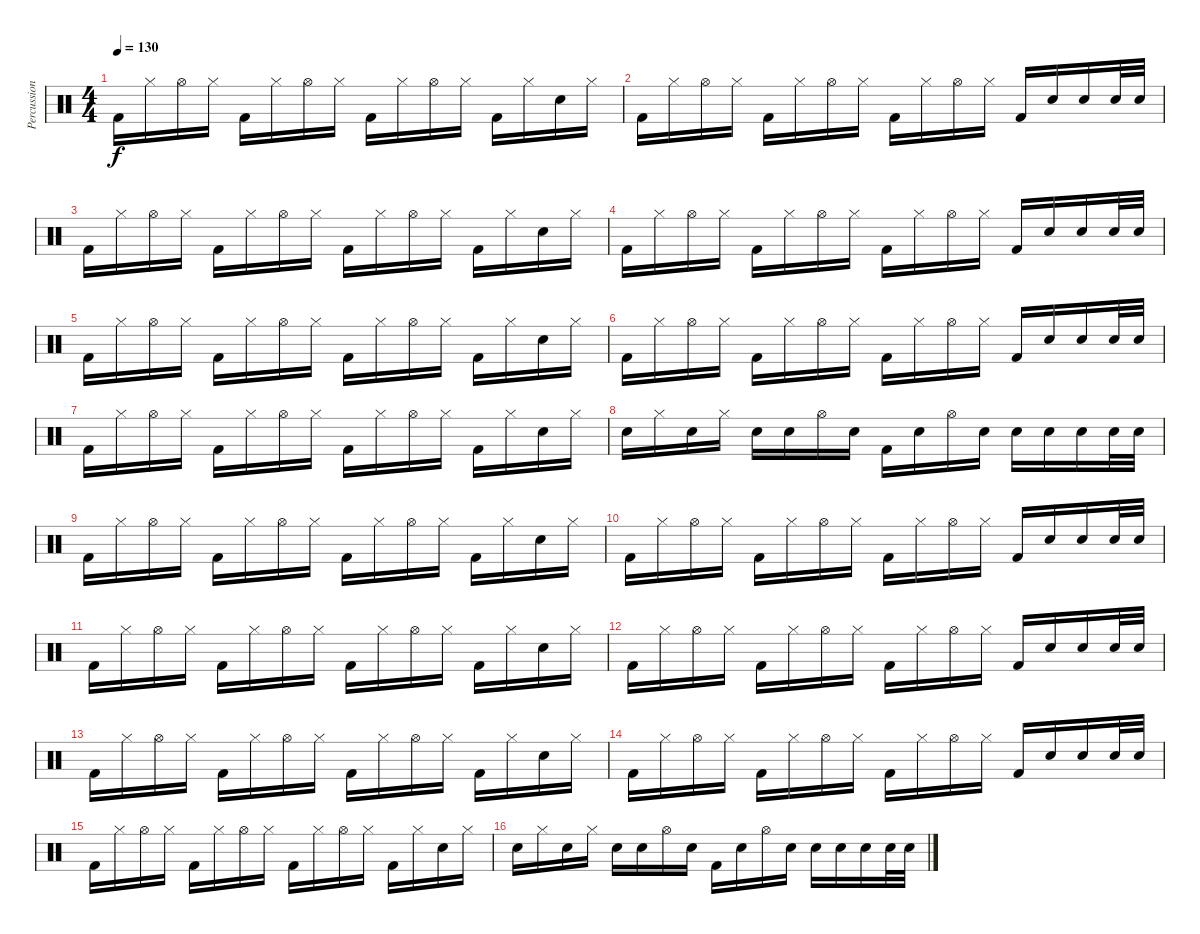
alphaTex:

\track ("Percussion" "Percussion") {instrument percussion}
\staff {score}
\articulation defaults
\ts (4 4)
\tempo 130
\clef neutral
\ks c "Kick (hit) 2".16{dy f} "Hi-Hat (closed)".16 "Hi-Hat (open)".16 "Hi-Hat (closed)".16 "Kick (hit) 2".16 "Hi-Hat (closed)".16 "Hi-Hat (open)".16 "Hi-Hat (closed)".16 "Kick (hit) 2".16 "Hi-Hat (closed)".16 "Hi-Hat (open)".16 "Hi-Hat (closed)".16 "Kick (hit) 2".16 "Hi-Hat (closed)".16 "Snare (hit) 2".16 "Hi-Hat (closed)".16
|
"Kick (hit) 2".16 "Hi-Hat (closed)".16 "Hi-Hat (open)".16 "Hi-Hat (closed)".16 "Kick (hit) 2".16 "Hi-Hat (closed)".16 "Hi-Hat (open)".16 "Hi-Hat (closed)".16 "Kick (hit) 2".16 "Hi-Hat (closed)".16 "Hi-Hat (open)".16 "Hi-Hat (closed)".16 "Kick (hit) 2".16 "Snare (hit) 2".16 "Snare (hit) 2".16 "Snare (hit) 2".32 "Snare (hit) 2".32 |
"Kick (hit) 2".16 "Hi-Hat (closed)".16 "Hi-Hat (open)".16 "Hi-Hat (closed)".16 "Kick (hit) 2".16 "Hi-Hat (closed)".16 "Hi-Hat (open)".16 "Hi-Hat (closed)".16 "Kick (hit) 2".16 "Hi-Hat (closed)".16 "Hi-Hat (open)".16 "Hi-Hat (closed)".16 "Kick (hit) 2".16 "Hi-Hat (closed)".16 "Snare (hit) 2".16 "Hi-Hat (closed)".16 |
"Kick (hit) 2".16 "Hi-Hat (closed)".16 "Hi-Hat (open)".16 "Hi-Hat (closed)".16 "Kick (hit) 2".16 "Hi-Hat (closed)".16 "Hi-Hat (open)".16 "Hi-Hat (closed)".16 "Kick (hit) 2".16 "Hi-Hat (closed)".16 "Hi-Hat (open)".16 "Hi-Hat (closed)".16 "Kick (hit) 2".16 "Snare (hit) 2".16 "Snare (hit) 2".16 "Snare (hit) 2".32 "Snare (hit) 2".32 |
"Kick (hit) 2".16 "Hi-Hat (closed)".16 "Hi-Hat (open)".16 "Hi-Hat (closed)".16 "Kick (hit) 2".16 "Hi-Hat (closed)".16 "Hi-Hat (open)".16 "Hi-Hat (closed)".16 "Kick (hit) 2".16 "Hi-Hat (closed)".16 "Hi-Hat (open)".16 "Hi-Hat (closed)".16 "Kick (hit) 2".16 "Hi-Hat (closed)".16 "Snare (hit) 2".16 "Hi-Hat (closed)".16 |
"Kick (hit) 2".16 "Hi-Hat (closed)".16 "Hi-Hat (open)".16 "Hi-Hat (closed)".16 "Kick (hit) 2".16 "Hi-Hat (closed)".16 "Hi-Hat (open)".16 "Hi-Hat (closed)".16 "Kick (hit) 2".16 "Hi-Hat (closed)".16 "Hi-Hat (open)".16 "Hi-Hat (closed)".16 "Kick (hit) 2".16 "Snare (hit) 2".16 "Snare (hit) 2".16 "Snare (hit) 2".32 "Snare (hit) 2".32 |
"Kick (hit) 2".16 "Hi-Hat (closed)".16 "Hi-Hat (open)".16 "Hi-Hat (closed)".16 "Kick (hit) 2".16 "Hi-Hat (closed)".16 "Hi-Hat (open)".16 "Hi-Hat (closed)".16 "Kick (hit) 2".16 "Hi-Hat (closed)".16 "Hi-Hat (open)".16 "Hi-Hat (closed)".16 "Kick (hit) 2".16 "Hi-Hat (closed)".16 "Snare (hit) 2".16 "Hi-Hat (closed)".16 |
"Snare (hit) 2".16 "Hi-Hat (closed)".16 "Snare (hit) 2".16 "Hi-Hat (closed)".16 "Snare (hit) 2".16 "Snare (hit) 2".16 "Hi-Hat (open)".16 "Snare (hit) 2".16 "Kick (hit) 2".16 "Snare (hit) 2".16 "Hi-Hat (open)".16 "Snare (hit) 2".16 "Snare (hit) 2".16 "Snare (hit) 2".16 "Snare (hit) 2".16 "Snare (hit) 2".32 "Snare (hit) 2".32 |
"Kick (hit) 2".16 "Hi-Hat (closed)".16 "Hi-Hat (open)".16 "Hi-Hat (closed)".16 "Kick (hit) 2".16 "Hi-Hat (closed)".16 "Hi-Hat (open)".16 "Hi-Hat (closed)".16 "Kick (hit) 2".16 "Hi-Hat (closed)".16 "Hi-Hat (open)".16 "Hi-Hat (closed)".16 "Kick (hit) 2".16 "Hi-Hat (closed)".16 "Snare (hit) 2".16 "Hi-Hat (closed)".16 |
"Kick (hit) 2".16 "Hi-Hat (closed)".16 "Hi-Hat (open)".16 "Hi-Hat (closed)".16 "Kick (hit) 2".16 "Hi-Hat (closed)".16 "Hi-Hat (open)".16 "Hi-Hat (closed)".16 "Kick (hit) 2".16 "Hi-Hat (closed)".16 "Hi-Hat (open)".16 "Hi-Hat (closed)".16 "Kick (hit) 2".16 "Snare (hit) 2".16 "Snare (hit) 2".16 "Snare (hit) 2".32 "Snare (hit) 2".32 |
"Kick (hit) 2".16 "Hi-Hat (closed)".16 "Hi-Hat (open)".16 "Hi-Hat (closed)".16 "Kick (hit) 2".16 "Hi-Hat (closed)".16 "Hi-Hat (open)".16 "Hi-Hat (closed)".16 "Kick (hit) 2".16 "Hi-Hat (closed)".16 "Hi-Hat (open)".16 "Hi-Hat (closed)".16 "Kick (hit) 2".16 "Hi-Hat (closed)".16 "Snare (hit) 2".16 "Hi-Hat (closed)".16 |
"Kick (hit) 2".16 "Hi-Hat (closed)".16 "Hi-Hat (open)".16 "Hi-Hat (closed)".16 "Kick (hit) 2".16 "Hi-Hat (closed)".16 "Hi-Hat (open)".16 "Hi-Hat (closed)".16 "Kick (hit) 2".16 "Hi-Hat (closed)".16 "Hi-Hat (open)".16 "Hi-Hat (closed)".16 "Kick (hit) 2".16 "Snare (hit) 2".16 "Snare (hit) 2".16 "Snare (hit) 2".32 "Snare (hit) 2".32 |
"Kick (hit) 2".16 "Hi-Hat (closed)".16 "Hi-Hat (open)".16 "Hi-Hat (closed)".16 "Kick (hit) 2".16 "Hi-Hat (closed)".16 "Hi-Hat (open)".16 "Hi-Hat (closed)".16 "Kick (hit) 2".16 "Hi-Hat (closed)".16 "Hi-Hat (open)".16 "Hi-Hat (closed)".16 "Kick (hit) 2".16 "Hi-Hat (closed)".16 "Snare (hit) 2".16 "Hi-Hat (closed)".16 |
"Kick (hit) 2".16 "Hi-Hat (closed)".16 "Hi-Hat (open)".16 "Hi-Hat (closed)".16 "Kick (hit) 2".16 "Hi-Hat (closed)".16 "Hi-Hat (open)".16 "Hi-Hat (closed)".16 "Kick (hit) 2".16 "Hi-Hat (closed)".16 "Hi-Hat (open)".16 "Hi-Hat (closed)".16 "Kick (hit) 2".16 "Snare (hit) 2".16 "Snare (hit) 2".16 "Snare (hit) 2".32 "Snare (hit) 2".32 |
"Kick (hit) 2".16 "Hi-Hat (closed)".16 "Hi-Hat (open)".16 "Hi-Hat (closed)".16 "Kick (hit) 2".16 "Hi-Hat (closed)".16 "Hi-Hat (open)".16 "Hi-Hat (closed)".16 "Kick (hit) 2".16 "Hi-Hat (closed)".16 "Hi-Hat (open)".16 "Hi-Hat (closed)".16 "Kick (hit) 2".16 "Hi-Hat (closed)".16 "Snare (hit) 2".16 "Hi-Hat (closed)".16 |
"Snare (hit) 2".16 "Hi-Hat (closed)".16 "Snare (hit) 2".16 "Hi-Hat (closed)".16 "Snare (hit) 2".16 "Snare (hit) 2".16 "Hi-Hat (open)".16 "Snare (hit) 2".16 "Kick (hit) 2".16 "Snare (hit) 2".16 "Hi-Hat (open)".16 "Snare (hit) 2".16 "Snare (hit) 2".16 "Snare (hit) 2".16 "Snare (hit) 2".16 "Snare (hit) 2".32 "Snare (hit) 2".32
